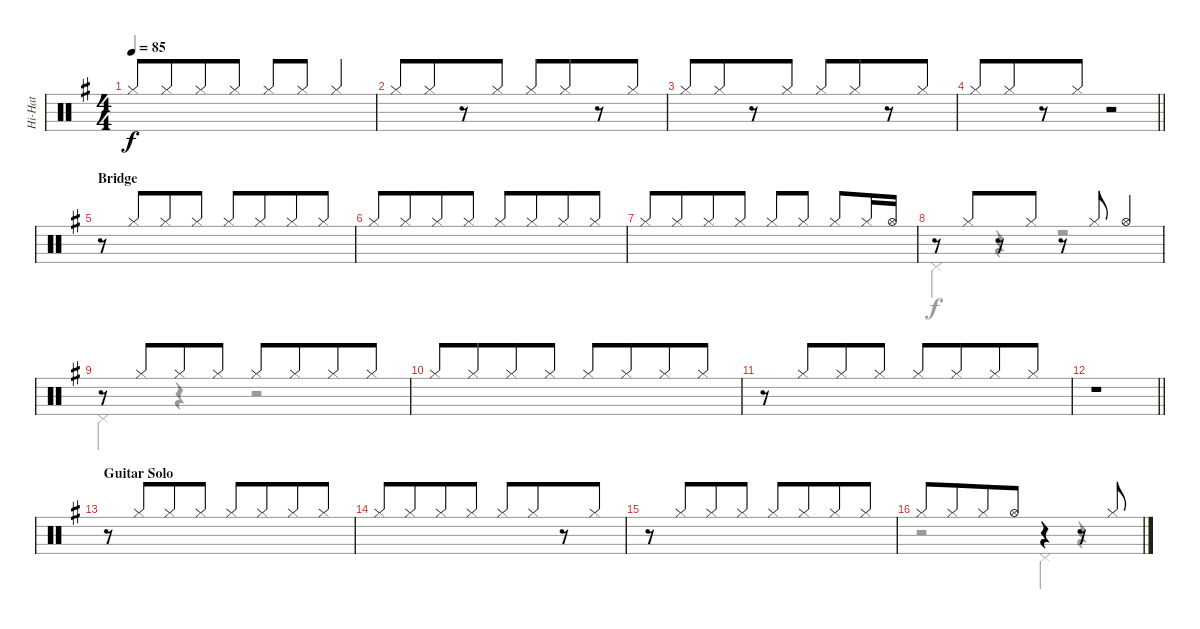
\track ("Hi-Hat" "Hi-Hat") {instrument percussion}
\staff {score}
\articulation defaults
\voice
\ts (4 4)
\tempo 85
\clef neutral
\ks g "Hi-Hat (closed)".8{dy f beam Up} "Hi-Hat (closed)".8{beam Up beam merge} "Hi-Hat (closed)".8{beam Up} "Hi-Hat (closed)".8{beam Up} "Hi-Hat (closed)".8{beam Up} "Hi-Hat (closed)".8{beam Up} "Hi-Hat (closed)".4{beam Up}
|
"Hi-Hat (closed)".8{beam Up} "Hi-Hat (closed)".8{beam Up beam merge} r.8 "Hi-Hat (closed)".8{beam Up} "Hi-Hat (closed)".8{beam Up} "Hi-Hat (closed)".8{beam Up beam merge} r.8 "Hi-Hat (closed)".8{beam Up} |
"Hi-Hat (closed)".8{beam Up} "Hi-Hat (closed)".8{beam Up beam merge} r.8 "Hi-Hat (closed)".8{beam Up} "Hi-Hat (closed)".8{beam Up} "Hi-Hat (closed)".8{beam Up beam merge} r.8 "Hi-Hat (closed)".8{beam Up} |
\barLineRight lightlight "Hi-Hat (closed)".8{beam Up} "Hi-Hat (closed)".8{beam Up beam merge}
r.8 "Hi-Hat (closed)".8{beam Up} r.2 |
\section ("" "Bridge")
r.8 "Hi-Hat (closed)".8{beam Up beam merge} "Hi-Hat (closed)".8{beam Up} "Hi-Hat (closed)".8{beam Up} "Hi-Hat (closed)".8{beam Up} "Hi-Hat (closed)".8{beam Up beam merge} "Hi-Hat (closed)".8{beam Up} "Hi-Hat (closed)".8{beam Up} |
"Hi-Hat (closed)".8{beam Up} "Hi-Hat (closed)".8{beam Up beam merge} "Hi-Hat (closed)".8{beam Up} "Hi-Hat (closed)".8{beam Up} "Hi-Hat (closed)".8{beam Up} "Hi-Hat (closed)".8{beam Up beam merge} "Hi-Hat (closed)".8{beam Up} "Hi-Hat (closed)".8{beam Up} |
"Hi-Hat (closed)".8{beam Up} "Hi-Hat (closed)".8{beam Up beam merge} "Hi-Hat (closed)".8{beam Up} "Hi-Hat (closed)".8{beam Up} "Hi-Hat (closed)".8{beam Up} "Hi-Hat (closed)".8{beam Up} "Hi-Hat (closed)".8{beam Up} "Hi-Hat (closed)".16{beam Up} "Hi-Hat (open)".16{beam Up} |
r.8 "Hi-Hat (closed)".8{beam merge} r.8 "Hi-Hat (closed)".8 r.8 "Hi-Hat (closed)".8 "Hi-Hat (open)".4 |
r.8 "Hi-Hat (closed)".8{beam merge} "Hi-Hat (closed)".8 "Hi-Hat (closed)".8 "Hi-Hat (closed)".8 "Hi-Hat (closed)".8{beam merge} "Hi-Hat (closed)".8 "Hi-Hat (closed)".8 |
"Hi-Hat (closed)".8{beam Up} "Hi-Hat (closed)".8{beam Up beam merge} "Hi-Hat (closed)".8{beam Up} "Hi-Hat (closed)".8{beam Up} "Hi-Hat (closed)".8{beam Up} "Hi-Hat (closed)".8{beam Up beam merge} "Hi-Hat (closed)".8{beam Up} "Hi-Hat (closed)".8{beam Up} |
r.8 "Hi-Hat (closed)".8{beam Up beam merge} "Hi-Hat (closed)".8{beam Up} "Hi-Hat (closed)".8{beam Up} "Hi-Hat (closed)".8{beam Up} "Hi-Hat (closed)".8{beam Up beam merge} "Hi-Hat (closed)".8{beam Up} "Hi-Hat (closed)".8{beam Up} |
\barLineRight lightlight
r.1 |
\section ("" "Guitar Solo")
r.8 "Hi-Hat (closed)".8{beam Up beam merge} "Hi-Hat (closed)".8{beam Up} "Hi-Hat (closed)".8{beam Up} "Hi-Hat (closed)".8{beam Up} "Hi-Hat (closed)".8{beam Up beam merge} "Hi-Hat (closed)".8{beam Up} "Hi-Hat (closed)".8{beam Up} |
"Hi-Hat (closed)".8{beam Up} "Hi-Hat (closed)".8{beam Up beam merge} "Hi-Hat (closed)".8{beam Up} "Hi-Hat (closed)".8{beam Up} "Hi-Hat (closed)".8{beam Up} "Hi-Hat (closed)".8{beam Up beam merge} r.8 "Hi-Hat (closed)".8{beam Up} |
r.8 "Hi-Hat (closed)".8{beam Up beam merge} "Hi-Hat (closed)".8{beam Up} "Hi-Hat (closed)".8{beam Up} "Hi-Hat (closed)".8{beam Up} "Hi-Hat (closed)".8{beam Up beam merge} "Hi-Hat (closed)".8{beam Up} "Hi-Hat (closed)".8{beam Up} |
"Hi-Hat (closed)".8 "Hi-Hat (closed)".8{beam merge} "Hi-Hat (closed)".8 "Hi-Hat (open)".8 r.4 r.8 "Hi-Hat (closed)".8
\voice
\clef neutral
\ottava regular
\simile none
\ks g
|
|
|
\barLineRight lightlight
|
|
|
|
"Pedal Hi-Hat (hit)".4 r.4 r.2 |
"Pedal Hi-Hat (hit)".4 r.4 r.2 |
|
|
\barLineRight lightlight
|
|
|
|
r.2 "Pedal Hi-Hat (hit)".4 r.4
